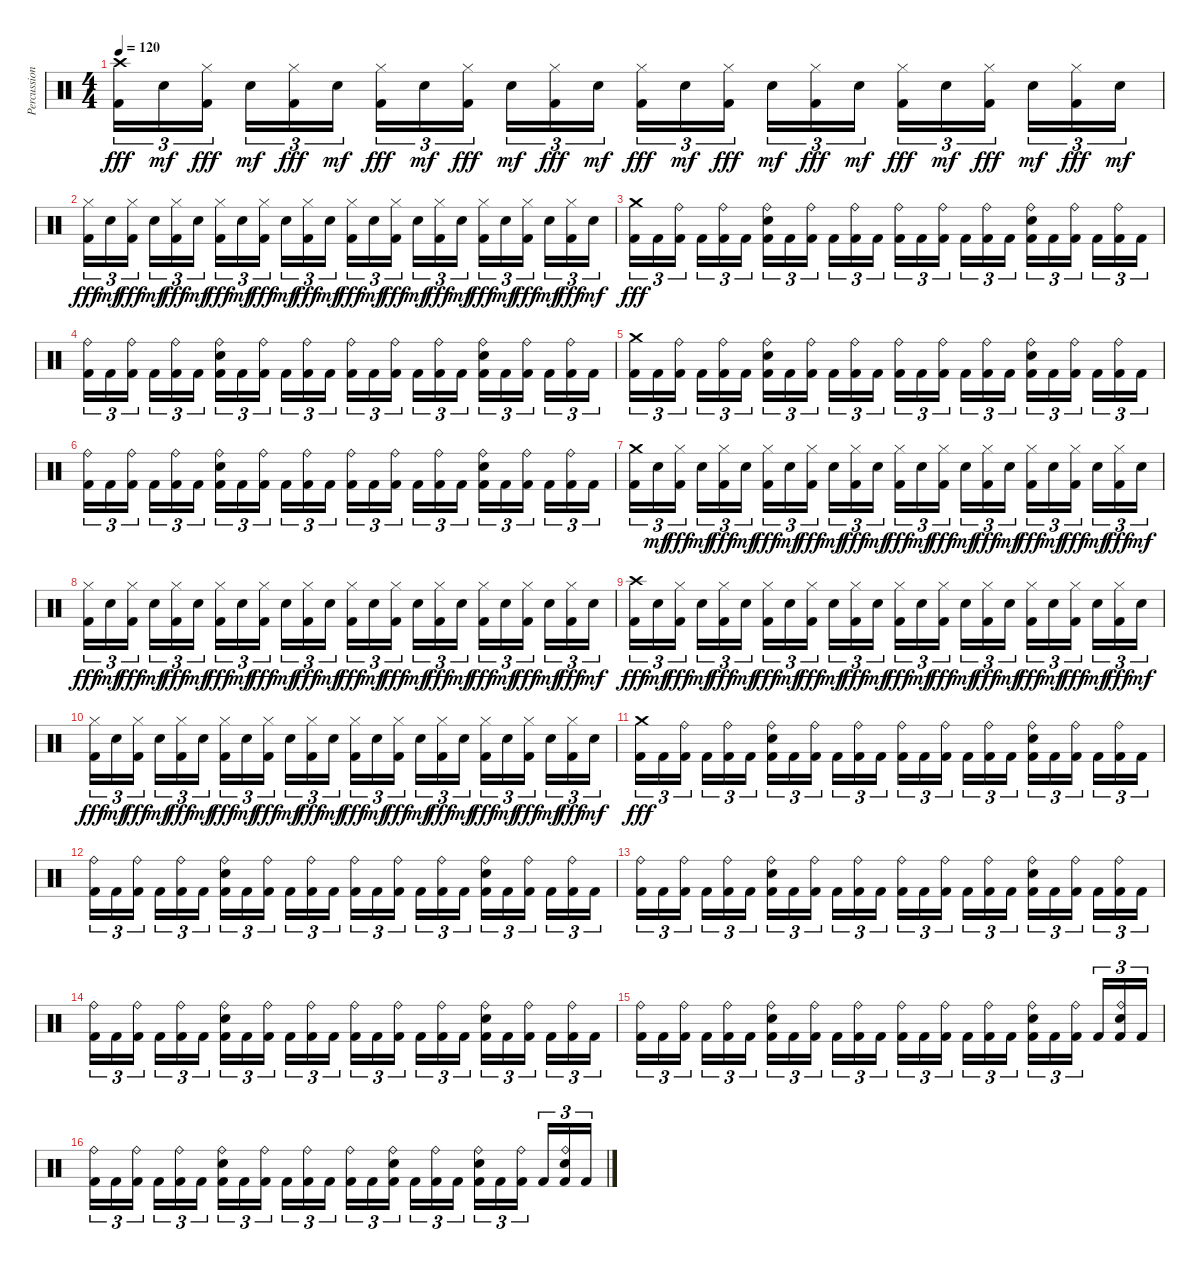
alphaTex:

\track ("Percussions" "Percussion") {instrument percussion}
\staff {score}
\articulation defaults
\ts (4 4)
\tempo 120
\clef neutral
\ks c
("Crash high (hit)" "Kick (hit) 2").16{tu (3 2) dy fff} "Electric Snare (hit)".16{tu (3 2) dy mf} ("Hi-Hat (closed)" "Kick (hit) 2").16{tu (3 2) dy fff beam splitsecondary} "Electric Snare (hit)".16{tu (3 2) dy mf} ("Hi-Hat (closed)" "Kick (hit) 2").16{tu (3 2) dy fff} "Electric Snare (hit)".16{tu (3 2) dy mf} ("Hi-Hat (closed)" "Kick (hit) 2").16{tu (3 2) dy fff} "Electric Snare (hit)".16{tu (3 2) dy mf} ("Hi-Hat (closed)" "Kick (hit) 2").16{tu (3 2) dy fff beam splitsecondary} "Electric Snare (hit)".16{tu (3 2) dy mf} ("Hi-Hat (closed)" "Kick (hit) 2").16{tu (3 2) dy fff} "Electric Snare (hit)".16{tu (3 2) dy mf} ("Hi-Hat (closed)" "Kick (hit) 2").16{tu (3 2) dy fff} "Electric Snare (hit)".16{tu (3 2) dy mf} ("Hi-Hat (closed)" "Kick (hit) 2").16{tu (3 2) dy fff beam splitsecondary} "Electric Snare (hit)".16{tu (3 2) dy mf} ("Hi-Hat (closed)" "Kick (hit) 2").16{tu (3 2) dy fff} "Electric Snare (hit)".16{tu (3 2) dy mf} ("Hi-Hat (closed)" "Kick (hit) 2").16{tu (3 2) dy fff} "Electric Snare (hit)".16{tu (3 2) dy mf} ("Hi-Hat (closed)" "Kick (hit) 2").16{tu (3 2) dy fff beam splitsecondary} "Electric Snare (hit)".16{tu (3 2) dy mf} ("Hi-Hat (closed)" "Kick (hit) 2").16{tu (3 2) dy fff} "Electric Snare (hit)".16{tu (3 2) dy mf} |
("Hi-Hat (closed)" "Kick (hit) 2").16{tu (3 2) dy fff} "Electric Snare (hit)".16{tu (3 2) dy mf} ("Hi-Hat (closed)" "Kick (hit) 2").16{tu (3 2) dy fff beam splitsecondary} "Electric Snare (hit)".16{tu (3 2) dy mf} ("Hi-Hat (closed)" "Kick (hit) 2").16{tu (3 2) dy fff} "Electric Snare (hit)".16{tu (3 2) dy mf} ("Hi-Hat (closed)" "Kick (hit) 2").16{tu (3 2) dy fff} "Electric Snare (hit)".16{tu (3 2) dy mf} ("Hi-Hat (closed)" "Kick (hit) 2").16{tu (3 2) dy fff beam splitsecondary} "Electric Snare (hit)".16{tu (3 2) dy mf} ("Hi-Hat (closed)" "Kick (hit) 2").16{tu (3 2) dy fff} "Electric Snare (hit)".16{tu (3 2) dy mf} ("Hi-Hat (closed)" "Kick (hit) 2").16{tu (3 2) dy fff} "Electric Snare (hit)".16{tu (3 2) dy mf} ("Hi-Hat (closed)" "Kick (hit) 2").16{tu (3 2) dy fff beam splitsecondary} "Electric Snare (hit)".16{tu (3 2) dy mf} ("Hi-Hat (closed)" "Kick (hit) 2").16{tu (3 2) dy fff} "Electric Snare (hit)".16{tu (3 2) dy mf} ("Hi-Hat (closed)" "Kick (hit) 2").16{tu (3 2) dy fff} "Electric Snare (hit)".16{tu (3 2) dy mf} ("Hi-Hat (closed)" "Kick (hit) 2").16{tu (3 2) dy fff beam splitsecondary} "Electric Snare (hit)".16{tu (3 2) dy mf} ("Hi-Hat (closed)" "Kick (hit) 2").16{tu (3 2) dy fff} "Electric Snare (hit)".16{tu (3 2) dy mf} |
("Crash medium (hit)" "Kick (hit) 2").16{tu (3 2) dy fff} "Kick (hit) 2".16{tu (3 2)} ("Ride (bell)" "Kick (hit) 2").16{tu (3 2) beam splitsecondary} "Kick (hit) 2".16{tu (3 2)} ("Ride (bell)" "Kick (hit) 2").16{tu (3 2)} "Kick (hit) 2".16{tu (3 2)} ("Ride (bell)" "Snare (hit) 2" "Kick (hit) 2").16{tu (3 2)} "Kick (hit) 2".16{tu (3 2)} ("Ride (bell)" "Kick (hit) 2").16{tu (3 2) beam splitsecondary} "Kick (hit) 2".16{tu (3 2)} ("Ride (bell)" "Kick (hit) 2").16{tu (3 2)} "Kick (hit) 2".16{tu (3 2)} ("Ride (bell)" "Kick (hit) 2").16{tu (3 2)} "Kick (hit) 2".16{tu (3 2)} ("Ride (bell)" "Kick (hit) 2").16{tu (3 2) beam splitsecondary} "Kick (hit) 2".16{tu (3 2)} ("Ride (bell)" "Kick (hit) 2").16{tu (3 2)} "Kick (hit) 2".16{tu (3 2)} ("Ride (bell)" "Snare (hit) 2" "Kick (hit) 2").16{tu (3 2)} "Kick (hit) 2".16{tu (3 2)} ("Ride (bell)" "Kick (hit) 2").16{tu (3 2) beam splitsecondary} "Kick (hit) 2".16{tu (3 2)} ("Ride (bell)" "Kick (hit) 2").16{tu (3 2)} "Kick (hit) 2".16{tu (3 2)} |
("Ride (bell)" "Kick (hit) 2").16{tu (3 2)} "Kick (hit) 2".16{tu (3 2)} ("Ride (bell)" "Kick (hit) 2").16{tu (3 2) beam splitsecondary} "Kick (hit) 2".16{tu (3 2)} ("Ride (bell)" "Kick (hit) 2").16{tu (3 2)} "Kick (hit) 2".16{tu (3 2)} ("Ride (bell)" "Snare (hit) 2" "Kick (hit) 2").16{tu (3 2)} "Kick (hit) 2".16{tu (3 2)} ("Ride (bell)" "Kick (hit) 2").16{tu (3 2) beam splitsecondary} "Kick (hit) 2".16{tu (3 2)} ("Ride (bell)" "Kick (hit) 2").16{tu (3 2)} "Kick (hit) 2".16{tu (3 2)} ("Ride (bell)" "Kick (hit) 2").16{tu (3 2)} "Kick (hit) 2".16{tu (3 2)} ("Ride (bell)" "Kick (hit) 2").16{tu (3 2) beam splitsecondary} "Kick (hit) 2".16{tu (3 2)} ("Ride (bell)" "Kick (hit) 2").16{tu (3 2)} "Kick (hit) 2".16{tu (3 2)} ("Ride (bell)" "Snare (hit) 2" "Kick (hit) 2").16{tu (3 2)} "Kick (hit) 2".16{tu (3 2)} ("Ride (bell)" "Kick (hit) 2").16{tu (3 2) beam splitsecondary} "Kick (hit) 2".16{tu (3 2)} ("Ride (bell)" "Kick (hit) 2").16{tu (3 2)} "Kick (hit) 2".16{tu (3 2)} |
("Crash medium (hit)" "Kick (hit) 2").16{tu (3 2)} "Kick (hit) 2".16{tu (3 2)} ("Ride (bell)" "Kick (hit) 2").16{tu (3 2) beam splitsecondary} "Kick (hit) 2".16{tu (3 2)} ("Ride (bell)" "Kick (hit) 2").16{tu (3 2)} "Kick (hit) 2".16{tu (3 2)} ("Ride (bell)" "Snare (hit) 2" "Kick (hit) 2").16{tu (3 2)} "Kick (hit) 2".16{tu (3 2)} ("Ride (bell)" "Kick (hit) 2").16{tu (3 2) beam splitsecondary} "Kick (hit) 2".16{tu (3 2)} ("Ride (bell)" "Kick (hit) 2").16{tu (3 2)} "Kick (hit) 2".16{tu (3 2)} ("Ride (bell)" "Kick (hit) 2").16{tu (3 2)} "Kick (hit) 2".16{tu (3 2)} ("Ride (bell)" "Kick (hit) 2").16{tu (3 2) beam splitsecondary} "Kick (hit) 2".16{tu (3 2)} ("Ride (bell)" "Kick (hit) 2").16{tu (3 2)} "Kick (hit) 2".16{tu (3 2)} ("Ride (bell)" "Snare (hit) 2" "Kick (hit) 2").16{tu (3 2)} "Kick (hit) 2".16{tu (3 2)} ("Ride (bell)" "Kick (hit) 2").16{tu (3 2) beam splitsecondary} "Kick (hit) 2".16{tu (3 2)} ("Ride (bell)" "Kick (hit) 2").16{tu (3 2)} "Kick (hit) 2".16{tu (3 2)} |
("Ride (bell)" "Kick (hit) 2").16{tu (3 2)} "Kick (hit) 2".16{tu (3 2)} ("Ride (bell)" "Kick (hit) 2").16{tu (3 2) beam splitsecondary} "Kick (hit) 2".16{tu (3 2)} ("Ride (bell)" "Kick (hit) 2").16{tu (3 2)} "Kick (hit) 2".16{tu (3 2)} ("Ride (bell)" "Snare (hit) 2" "Kick (hit) 2").16{tu (3 2)} "Kick (hit) 2".16{tu (3 2)} ("Ride (bell)" "Kick (hit) 2").16{tu (3 2) beam splitsecondary} "Kick (hit) 2".16{tu (3 2)} ("Ride (bell)" "Kick (hit) 2").16{tu (3 2)} "Kick (hit) 2".16{tu (3 2)} ("Ride (bell)" "Kick (hit) 2").16{tu (3 2)} "Kick (hit) 2".16{tu (3 2)} ("Ride (bell)" "Kick (hit) 2").16{tu (3 2) beam splitsecondary} "Kick (hit) 2".16{tu (3 2)} ("Ride (bell)" "Kick (hit) 2").16{tu (3 2)} "Kick (hit) 2".16{tu (3 2)} ("Ride (bell)" "Snare (hit) 2" "Kick (hit) 2").16{tu (3 2)} "Kick (hit) 2".16{tu (3 2)} ("Ride (bell)" "Kick (hit) 2").16{tu (3 2) beam splitsecondary} "Kick (hit) 2".16{tu (3 2)} ("Ride (bell)" "Kick (hit) 2").16{tu (3 2)} "Kick (hit) 2".16{tu (3 2)} |
("Crash medium (hit)" "Kick (hit) 2").16{tu (3 2)} "Electric Snare (hit)".16{tu (3 2) dy mf} ("Hi-Hat (closed)" "Kick (hit) 2").16{tu (3 2) dy fff beam splitsecondary} "Electric Snare (hit)".16{tu (3 2) dy mf} ("Hi-Hat (closed)" "Kick (hit) 2").16{tu (3 2) dy fff} "Electric Snare (hit)".16{tu (3 2) dy mf} ("Hi-Hat (closed)" "Kick (hit) 2").16{tu (3 2) dy fff} "Electric Snare (hit)".16{tu (3 2) dy mf} ("Hi-Hat (closed)" "Kick (hit) 2").16{tu (3 2) dy fff beam splitsecondary} "Electric Snare (hit)".16{tu (3 2) dy mf} ("Hi-Hat (closed)" "Kick (hit) 2").16{tu (3 2) dy fff} "Electric Snare (hit)".16{tu (3 2) dy mf} ("Hi-Hat (closed)" "Kick (hit) 2").16{tu (3 2) dy fff} "Electric Snare (hit)".16{tu (3 2) dy mf} ("Hi-Hat (closed)" "Kick (hit) 2").16{tu (3 2) dy fff beam splitsecondary} "Electric Snare (hit)".16{tu (3 2) dy mf} ("Hi-Hat (closed)" "Kick (hit) 2").16{tu (3 2) dy fff} "Electric Snare (hit)".16{tu (3 2) dy mf} ("Hi-Hat (closed)" "Kick (hit) 2").16{tu (3 2) dy fff} "Electric Snare (hit)".16{tu (3 2) dy mf} ("Hi-Hat (closed)" "Kick (hit) 2").16{tu (3 2) dy fff beam splitsecondary} "Electric Snare (hit)".16{tu (3 2) dy mf} ("Hi-Hat (closed)" "Kick (hit) 2").16{tu (3 2) dy fff} "Electric Snare (hit)".16{tu (3 2) dy mf} |
("Hi-Hat (closed)" "Kick (hit) 2").16{tu (3 2) dy fff} "Electric Snare (hit)".16{tu (3 2) dy mf} ("Hi-Hat (closed)" "Kick (hit) 2").16{tu (3 2) dy fff beam splitsecondary} "Electric Snare (hit)".16{tu (3 2) dy mf} ("Hi-Hat (closed)" "Kick (hit) 2").16{tu (3 2) dy fff} "Electric Snare (hit)".16{tu (3 2) dy mf} ("Hi-Hat (closed)" "Kick (hit) 2").16{tu (3 2) dy fff} "Electric Snare (hit)".16{tu (3 2) dy mf} ("Hi-Hat (closed)" "Kick (hit) 2").16{tu (3 2) dy fff beam splitsecondary} "Electric Snare (hit)".16{tu (3 2) dy mf} ("Hi-Hat (closed)" "Kick (hit) 2").16{tu (3 2) dy fff} "Electric Snare (hit)".16{tu (3 2) dy mf} ("Hi-Hat (closed)" "Kick (hit) 2").16{tu (3 2) dy fff} "Electric Snare (hit)".16{tu (3 2) dy mf} ("Hi-Hat (closed)" "Kick (hit) 2").16{tu (3 2) dy fff beam splitsecondary} "Electric Snare (hit)".16{tu (3 2) dy mf} ("Hi-Hat (closed)" "Kick (hit) 2").16{tu (3 2) dy fff} "Electric Snare (hit)".16{tu (3 2) dy mf} ("Hi-Hat (closed)" "Kick (hit) 2").16{tu (3 2) dy fff} "Electric Snare (hit)".16{tu (3 2) dy mf} ("Hi-Hat (closed)" "Kick (hit) 2").16{tu (3 2) dy fff beam splitsecondary} "Electric Snare (hit)".16{tu (3 2) dy mf} ("Hi-Hat (closed)" "Kick (hit) 2").16{tu (3 2) dy fff} "Electric Snare (hit)".16{tu (3 2) dy mf} |
("Crash high (hit)" "Kick (hit) 2").16{tu (3 2) dy fff} "Electric Snare (hit)".16{tu (3 2) dy mf} ("Hi-Hat (closed)" "Kick (hit) 2").16{tu (3 2) dy fff beam splitsecondary} "Electric Snare (hit)".16{tu (3 2) dy mf} ("Hi-Hat (closed)" "Kick (hit) 2").16{tu (3 2) dy fff} "Electric Snare (hit)".16{tu (3 2) dy mf} ("Hi-Hat (closed)" "Kick (hit) 2").16{tu (3 2) dy fff} "Electric Snare (hit)".16{tu (3 2) dy mf} ("Hi-Hat (closed)" "Kick (hit) 2").16{tu (3 2) dy fff beam splitsecondary} "Electric Snare (hit)".16{tu (3 2) dy mf} ("Hi-Hat (closed)" "Kick (hit) 2").16{tu (3 2) dy fff} "Electric Snare (hit)".16{tu (3 2) dy mf} ("Hi-Hat (closed)" "Kick (hit) 2").16{tu (3 2) dy fff} "Electric Snare (hit)".16{tu (3 2) dy mf} ("Hi-Hat (closed)" "Kick (hit) 2").16{tu (3 2) dy fff beam splitsecondary} "Electric Snare (hit)".16{tu (3 2) dy mf} ("Hi-Hat (closed)" "Kick (hit) 2").16{tu (3 2) dy fff} "Electric Snare (hit)".16{tu (3 2) dy mf} ("Hi-Hat (closed)" "Kick (hit) 2").16{tu (3 2) dy fff} "Electric Snare (hit)".16{tu (3 2) dy mf} ("Hi-Hat (closed)" "Kick (hit) 2").16{tu (3 2) dy fff beam splitsecondary} "Electric Snare (hit)".16{tu (3 2) dy mf} ("Hi-Hat (closed)" "Kick (hit) 2").16{tu (3 2) dy fff} "Electric Snare (hit)".16{tu (3 2) dy mf} |
("Hi-Hat (closed)" "Kick (hit) 2").16{tu (3 2) dy fff} "Electric Snare (hit)".16{tu (3 2) dy mf} ("Hi-Hat (closed)" "Kick (hit) 2").16{tu (3 2) dy fff beam splitsecondary} "Electric Snare (hit)".16{tu (3 2) dy mf} ("Hi-Hat (closed)" "Kick (hit) 2").16{tu (3 2) dy fff} "Electric Snare (hit)".16{tu (3 2) dy mf} ("Hi-Hat (closed)" "Kick (hit) 2").16{tu (3 2) dy fff} "Electric Snare (hit)".16{tu (3 2) dy mf} ("Hi-Hat (closed)" "Kick (hit) 2").16{tu (3 2) dy fff beam splitsecondary} "Electric Snare (hit)".16{tu (3 2) dy mf} ("Hi-Hat (closed)" "Kick (hit) 2").16{tu (3 2) dy fff} "Electric Snare (hit)".16{tu (3 2) dy mf} ("Hi-Hat (closed)" "Kick (hit) 2").16{tu (3 2) dy fff} "Electric Snare (hit)".16{tu (3 2) dy mf} ("Hi-Hat (closed)" "Kick (hit) 2").16{tu (3 2) dy fff beam splitsecondary} "Electric Snare (hit)".16{tu (3 2) dy mf} ("Hi-Hat (closed)" "Kick (hit) 2").16{tu (3 2) dy fff} "Electric Snare (hit)".16{tu (3 2) dy mf} ("Hi-Hat (closed)" "Kick (hit) 2").16{tu (3 2) dy fff} "Electric Snare (hit)".16{tu (3 2) dy mf} ("Hi-Hat (closed)" "Kick (hit) 2").16{tu (3 2) dy fff beam splitsecondary} "Electric Snare (hit)".16{tu (3 2) dy mf} ("Hi-Hat (closed)" "Kick (hit) 2").16{tu (3 2) dy fff} "Electric Snare (hit)".16{tu (3 2) dy mf} |
("Crash medium (hit)" "Kick (hit) 2").16{tu (3 2) dy fff} "Kick (hit) 2".16{tu (3 2)} ("Ride (bell)" "Kick (hit) 2").16{tu (3 2) beam splitsecondary} "Kick (hit) 2".16{tu (3 2)} ("Ride (bell)" "Kick (hit) 2").16{tu (3 2)} "Kick (hit) 2".16{tu (3 2)} ("Ride (bell)" "Snare (hit) 2" "Kick (hit) 2").16{tu (3 2)} "Kick (hit) 2".16{tu (3 2)} ("Ride (bell)" "Kick (hit) 2").16{tu (3 2) beam splitsecondary} "Kick (hit) 2".16{tu (3 2)} ("Ride (bell)" "Kick (hit) 2").16{tu (3 2)} "Kick (hit) 2".16{tu (3 2)} ("Ride (bell)" "Kick (hit) 2").16{tu (3 2)} "Kick (hit) 2".16{tu (3 2)} ("Ride (bell)" "Kick (hit) 2").16{tu (3 2) beam splitsecondary} "Kick (hit) 2".16{tu (3 2)} ("Ride (bell)" "Kick (hit) 2").16{tu (3 2)} "Kick (hit) 2".16{tu (3 2)} ("Ride (bell)" "Snare (hit) 2" "Kick (hit) 2").16{tu (3 2)} "Kick (hit) 2".16{tu (3 2)} ("Ride (bell)" "Kick (hit) 2").16{tu (3 2) beam splitsecondary} "Kick (hit) 2".16{tu (3 2)} ("Ride (bell)" "Kick (hit) 2").16{tu (3 2)} "Kick (hit) 2".16{tu (3 2)} |
("Ride (bell)" "Kick (hit) 2").16{tu (3 2)} "Kick (hit) 2".16{tu (3 2)} ("Ride (bell)" "Kick (hit) 2").16{tu (3 2) beam splitsecondary} "Kick (hit) 2".16{tu (3 2)} ("Ride (bell)" "Kick (hit) 2").16{tu (3 2)} "Kick (hit) 2".16{tu (3 2)} ("Ride (bell)" "Snare (hit) 2" "Kick (hit) 2").16{tu (3 2)} "Kick (hit) 2".16{tu (3 2)} ("Ride (bell)" "Kick (hit) 2").16{tu (3 2) beam splitsecondary} "Kick (hit) 2".16{tu (3 2)} ("Ride (bell)" "Kick (hit) 2").16{tu (3 2)} "Kick (hit) 2".16{tu (3 2)} ("Ride (bell)" "Kick (hit) 2").16{tu (3 2)} "Kick (hit) 2".16{tu (3 2)} ("Ride (bell)" "Kick (hit) 2").16{tu (3 2) beam splitsecondary} "Kick (hit) 2".16{tu (3 2)} ("Ride (bell)" "Kick (hit) 2").16{tu (3 2)} "Kick (hit) 2".16{tu (3 2)} ("Ride (bell)" "Snare (hit) 2" "Kick (hit) 2").16{tu (3 2)} "Kick (hit) 2".16{tu (3 2)} ("Ride (bell)" "Kick (hit) 2").16{tu (3 2) beam splitsecondary} "Kick (hit) 2".16{tu (3 2)} ("Ride (bell)" "Kick (hit) 2").16{tu (3 2)} "Kick (hit) 2".16{tu (3 2)} |
("Ride (bell)" "Kick (hit) 2").16{tu (3 2)} "Kick (hit) 2".16{tu (3 2)} ("Ride (bell)" "Kick (hit) 2").16{tu (3 2) beam splitsecondary} "Kick (hit) 2".16{tu (3 2)} ("Ride (bell)" "Kick (hit) 2").16{tu (3 2)} "Kick (hit) 2".16{tu (3 2)} ("Ride (bell)" "Snare (hit) 2" "Kick (hit) 2").16{tu (3 2)} "Kick (hit) 2".16{tu (3 2)} ("Ride (bell)" "Kick (hit) 2").16{tu (3 2) beam splitsecondary} "Kick (hit) 2".16{tu (3 2)} ("Ride (bell)" "Kick (hit) 2").16{tu (3 2)} "Kick (hit) 2".16{tu (3 2)} ("Ride (bell)" "Kick (hit) 2").16{tu (3 2)} "Kick (hit) 2".16{tu (3 2)} ("Ride (bell)" "Kick (hit) 2").16{tu (3 2) beam splitsecondary} "Kick (hit) 2".16{tu (3 2)} ("Ride (bell)" "Kick (hit) 2").16{tu (3 2)} "Kick (hit) 2".16{tu (3 2)} ("Ride (bell)" "Snare (hit) 2" "Kick (hit) 2").16{tu (3 2)} "Kick (hit) 2".16{tu (3 2)} ("Ride (bell)" "Kick (hit) 2").16{tu (3 2) beam splitsecondary} "Kick (hit) 2".16{tu (3 2)} ("Ride (bell)" "Kick (hit) 2").16{tu (3 2)} "Kick (hit) 2".16{tu (3 2)} |
("Ride (bell)" "Kick (hit) 2").16{tu (3 2)} "Kick (hit) 2".16{tu (3 2)} ("Ride (bell)" "Kick (hit) 2").16{tu (3 2) beam splitsecondary} "Kick (hit) 2".16{tu (3 2)} ("Ride (bell)" "Kick (hit) 2").16{tu (3 2)} "Kick (hit) 2".16{tu (3 2)} ("Ride (bell)" "Snare (hit) 2" "Kick (hit) 2").16{tu (3 2)} "Kick (hit) 2".16{tu (3 2)} ("Ride (bell)" "Kick (hit) 2").16{tu (3 2) beam splitsecondary} "Kick (hit) 2".16{tu (3 2)} ("Ride (bell)" "Kick (hit) 2").16{tu (3 2)} "Kick (hit) 2".16{tu (3 2)} ("Ride (bell)" "Kick (hit) 2").16{tu (3 2)} "Kick (hit) 2".16{tu (3 2)} ("Ride (bell)" "Kick (hit) 2").16{tu (3 2) beam splitsecondary} "Kick (hit) 2".16{tu (3 2)} ("Ride (bell)" "Kick (hit) 2").16{tu (3 2)} "Kick (hit) 2".16{tu (3 2)} ("Ride (bell)" "Snare (hit) 2" "Kick (hit) 2").16{tu (3 2)} "Kick (hit) 2".16{tu (3 2)} ("Ride (bell)" "Kick (hit) 2").16{tu (3 2) beam splitsecondary} "Kick (hit) 2".16{tu (3 2)} ("Ride (bell)" "Kick (hit) 2").16{tu (3 2)} "Kick (hit) 2".16{tu (3 2)} |
("Ride (bell)" "Kick (hit) 2").16{tu (3 2)} "Kick (hit) 2".16{tu (3 2)} ("Ride (bell)" "Kick (hit) 2").16{tu (3 2) beam splitsecondary} "Kick (hit) 2".16{tu (3 2)} ("Ride (bell)" "Kick (hit) 2").16{tu (3 2)} "Kick (hit) 2".16{tu (3 2)} ("Ride (bell)" "Snare (hit) 2" "Kick (hit) 2").16{tu (3 2)} "Kick (hit) 2".16{tu (3 2)} ("Ride (bell)" "Kick (hit) 2").16{tu (3 2) beam splitsecondary} "Kick (hit) 2".16{tu (3 2)} ("Ride (bell)" "Kick (hit) 2").16{tu (3 2)} "Kick (hit) 2".16{tu (3 2)} ("Ride (bell)" "Kick (hit) 2").16{tu (3 2)} "Kick (hit) 2".16{tu (3 2)} ("Ride (bell)" "Kick (hit) 2").16{tu (3 2) beam splitsecondary} "Kick (hit) 2".16{tu (3 2)} ("Ride (bell)" "Kick (hit) 2").16{tu (3 2)} "Kick (hit) 2".16{tu (3 2)} ("Ride (bell)" "Snare (hit) 2" "Kick (hit) 2").16{tu (3 2)} "Kick (hit) 2".16{tu (3 2)} ("Ride (bell)" "Kick (hit) 2").16{tu (3 2) beam splitsecondary} "Kick (hit) 2".16{tu (3 2)} ("Ride (bell)" "Snare (hit) 2" "Kick (hit) 2").16{tu (3 2)} "Kick (hit) 2".16{tu (3 2)} |
("Ride (bell)" "Kick (hit) 2").16{tu (3 2)} "Kick (hit) 2".16{tu (3 2)} ("Ride (bell)" "Kick (hit) 2").16{tu (3 2) beam splitsecondary} "Kick (hit) 2".16{tu (3 2)} ("Ride (bell)" "Kick (hit) 2").16{tu (3 2)} "Kick (hit) 2".16{tu (3 2)} ("Ride (bell)" "Snare (hit) 2" "Kick (hit) 2").16{tu (3 2)} "Kick (hit) 2".16{tu (3 2)} ("Ride (bell)" "Kick (hit) 2").16{tu (3 2) beam splitsecondary} "Kick (hit) 2".16{tu (3 2)} ("Ride (bell)" "Kick (hit) 2").16{tu (3 2)} "Kick (hit) 2".16{tu (3 2)} ("Ride (bell)" "Kick (hit) 2").16{tu (3 2)} "Kick (hit) 2".16{tu (3 2)} ("Ride (bell)" "Snare (hit) 2" "Kick (hit) 2").16{tu (3 2) beam splitsecondary} "Kick (hit) 2".16{tu (3 2)} ("Ride (bell)" "Kick (hit) 2").16{tu (3 2)} "Kick (hit) 2".16{tu (3 2)} ("Ride (bell)" "Snare (hit) 2" "Kick (hit) 2").16{tu (3 2)} "Kick (hit) 2".16{tu (3 2)} ("Ride (bell)" "Kick (hit) 2").16{tu (3 2) beam splitsecondary} "Kick (hit) 2".16{tu (3 2)} ("Ride (bell)" "Snare (hit) 2" "Kick (hit) 2").16{tu (3 2)} "Kick (hit) 2".16{tu (3 2)}
